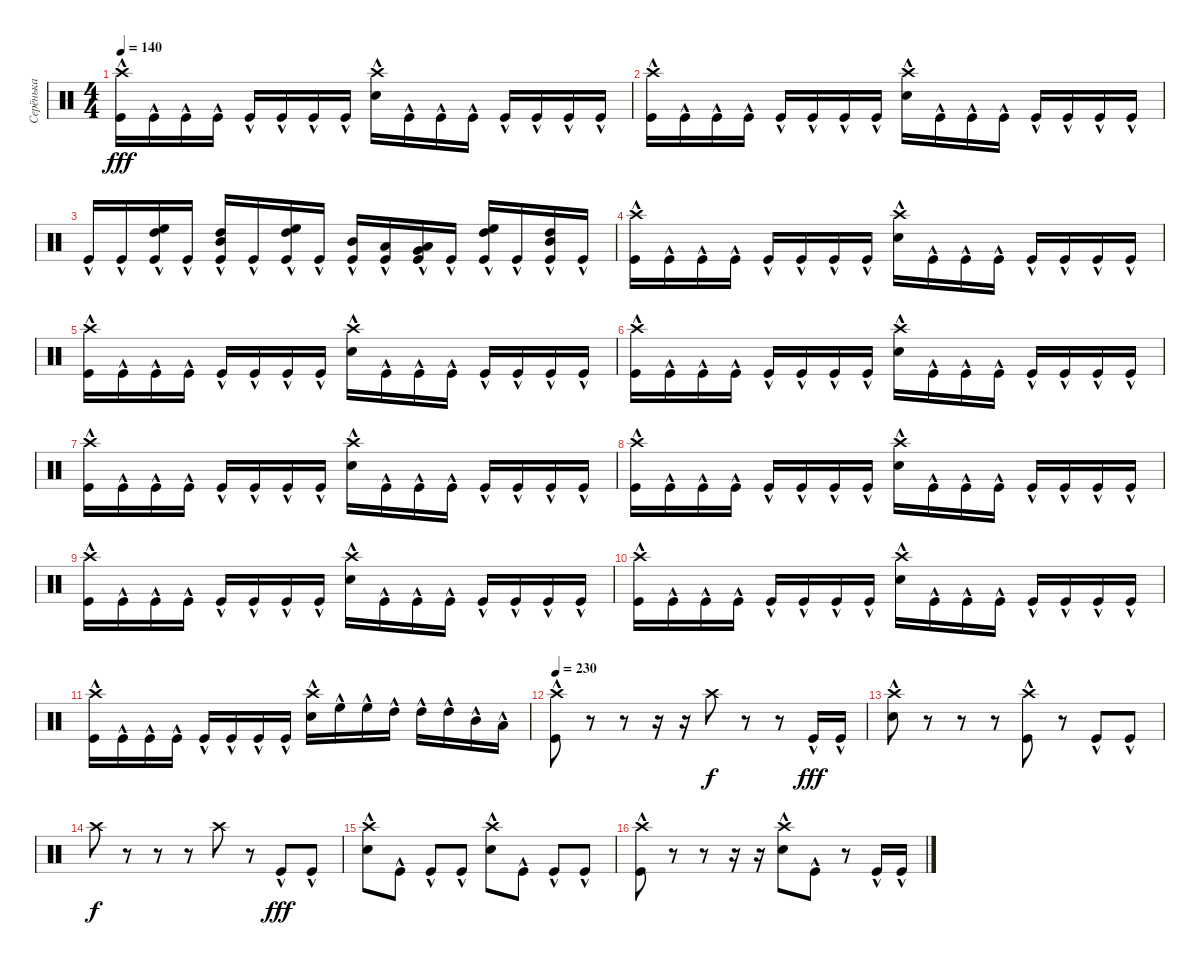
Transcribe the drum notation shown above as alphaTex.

\track ("Серёнька" "Серёнька") {instrument percussion}
\staff {score}
\articulation defaults
\ts (4 4)
\tempo 140
\clef neutral
\ks c
("Crash high (hit)" "Kick (hit)"{hac}).16{dy fff} "Kick (hit)"{hac}.16 "Kick (hit)"{hac}.16 "Kick (hit)"{hac}.16 "Kick (hit)"{hac}.16 "Kick (hit)"{hac}.16 "Kick (hit)"{hac}.16 "Kick (hit)"{hac}.16 ("Crash high (hit)" "Snare (hit) 2"{hac}).16 "Kick (hit)"{hac}.16 "Kick (hit)"{hac}.16 "Kick (hit)"{hac}.16 "Kick (hit)"{hac}.16 "Kick (hit)"{hac}.16 "Kick (hit)"{hac}.16 "Kick (hit)"{hac}.16 |
("Crash high (hit)" "Kick (hit)"{hac}).16 "Kick (hit)"{hac}.16 "Kick (hit)"{hac}.16 "Kick (hit)"{hac}.16 "Kick (hit)"{hac}.16 "Kick (hit)"{hac}.16 "Kick (hit)"{hac}.16 "Kick (hit)"{hac}.16 ("Crash high (hit)" "Snare (hit) 2"{hac}).16 "Kick (hit)"{hac}.16 "Kick (hit)"{hac}.16 "Kick (hit)"{hac}.16 "Kick (hit)"{hac}.16 "Kick (hit)"{hac}.16 "Kick (hit)"{hac}.16 "Kick (hit)"{hac}.16 |
"Kick (hit)"{hac}.16 "Kick (hit)"{hac}.16 ("High Tom (hit)"{hac} "High Floor Tom (hit)"{hac} "Kick (hit)"{hac}).16 "Kick (hit)"{hac}.16 ("High Tom (hit)"{hac} "Mid Tom (hit)"{hac} "Kick (hit)"{hac}).16 "Kick (hit)"{hac}.16 ("High Tom (hit)"{hac} "High Floor Tom (hit)"{hac} "Kick (hit)"{hac}).16 "Kick (hit)"{hac}.16 ("Mid Tom (hit)"{hac} "Kick (hit)"{hac}).16 ("Low Tom (hit)"{hac} "Kick (hit)"{hac}).16 ("Very Low Tom (hit)"{hac} "Low Tom (hit)"{hac} "Kick (hit)"{hac}).16 "Kick (hit)"{hac}.16 ("High Tom (hit)"{hac} "High Floor Tom (hit)"{hac} "Kick (hit)"{hac}).16 "Kick (hit)"{hac}.16 ("Mid Tom (hit)"{hac} "High Tom (hit)"{hac} "Kick (hit)"{hac}).16 "Kick (hit)"{hac}.16 |
("Crash high (hit)" "Kick (hit)"{hac}).16 "Kick (hit)"{hac}.16 "Kick (hit)"{hac}.16 "Kick (hit)"{hac}.16 "Kick (hit)"{hac}.16 "Kick (hit)"{hac}.16 "Kick (hit)"{hac}.16 "Kick (hit)"{hac}.16 ("Crash high (hit)" "Snare (hit) 2"{hac}).16 "Kick (hit)"{hac}.16 "Kick (hit)"{hac}.16 "Kick (hit)"{hac}.16 "Kick (hit)"{hac}.16 "Kick (hit)"{hac}.16 "Kick (hit)"{hac}.16 "Kick (hit)"{hac}.16 |
("Crash high (hit)" "Kick (hit)"{hac}).16 "Kick (hit)"{hac}.16 "Kick (hit)"{hac}.16 "Kick (hit)"{hac}.16 "Kick (hit)"{hac}.16 "Kick (hit)"{hac}.16 "Kick (hit)"{hac}.16 "Kick (hit)"{hac}.16 ("Crash high (hit)" "Snare (hit) 2"{hac}).16 "Kick (hit)"{hac}.16 "Kick (hit)"{hac}.16 "Kick (hit)"{hac}.16 "Kick (hit)"{hac}.16 "Kick (hit)"{hac}.16 "Kick (hit)"{hac}.16 "Kick (hit)"{hac}.16 |
("Crash high (hit)" "Kick (hit)"{hac}).16 "Kick (hit)"{hac}.16 "Kick (hit)"{hac}.16 "Kick (hit)"{hac}.16 "Kick (hit)"{hac}.16 "Kick (hit)"{hac}.16 "Kick (hit)"{hac}.16 "Kick (hit)"{hac}.16 ("Crash high (hit)" "Snare (hit) 2"{hac}).16 "Kick (hit)"{hac}.16 "Kick (hit)"{hac}.16 "Kick (hit)"{hac}.16 "Kick (hit)"{hac}.16 "Kick (hit)"{hac}.16 "Kick (hit)"{hac}.16 "Kick (hit)"{hac}.16 |
("Crash high (hit)" "Kick (hit)"{hac}).16 "Kick (hit)"{hac}.16 "Kick (hit)"{hac}.16 "Kick (hit)"{hac}.16 "Kick (hit)"{hac}.16 "Kick (hit)"{hac}.16 "Kick (hit)"{hac}.16 "Kick (hit)"{hac}.16 ("Crash high (hit)" "Snare (hit) 2"{hac}).16 "Kick (hit)"{hac}.16 "Kick (hit)"{hac}.16 "Kick (hit)"{hac}.16 "Kick (hit)"{hac}.16 "Kick (hit)"{hac}.16 "Kick (hit)"{hac}.16 "Kick (hit)"{hac}.16 |
("Crash high (hit)" "Kick (hit)"{hac}).16 "Kick (hit)"{hac}.16 "Kick (hit)"{hac}.16 "Kick (hit)"{hac}.16 "Kick (hit)"{hac}.16 "Kick (hit)"{hac}.16 "Kick (hit)"{hac}.16 "Kick (hit)"{hac}.16 ("Crash high (hit)" "Snare (hit) 2"{hac}).16 "Kick (hit)"{hac}.16 "Kick (hit)"{hac}.16 "Kick (hit)"{hac}.16 "Kick (hit)"{hac}.16 "Kick (hit)"{hac}.16 "Kick (hit)"{hac}.16 "Kick (hit)"{hac}.16 |
("Crash high (hit)" "Kick (hit)"{hac}).16 "Kick (hit)"{hac}.16 "Kick (hit)"{hac}.16 "Kick (hit)"{hac}.16 "Kick (hit)"{hac}.16 "Kick (hit)"{hac}.16 "Kick (hit)"{hac}.16 "Kick (hit)"{hac}.16 ("Crash high (hit)" "Snare (hit) 2"{hac}).16 "Kick (hit)"{hac}.16 "Kick (hit)"{hac}.16 "Kick (hit)"{hac}.16 "Kick (hit)"{hac}.16 "Kick (hit)"{hac}.16 "Kick (hit)"{hac}.16 "Kick (hit)"{hac}.16 |
("Crash high (hit)" "Kick (hit)"{hac}).16 "Kick (hit)"{hac}.16 "Kick (hit)"{hac}.16 "Kick (hit)"{hac}.16 "Kick (hit)"{hac}.16 "Kick (hit)"{hac}.16 "Kick (hit)"{hac}.16 "Kick (hit)"{hac}.16 ("Crash high (hit)" "Snare (hit) 2"{hac}).16 "Kick (hit)"{hac}.16 "Kick (hit)"{hac}.16 "Kick (hit)"{hac}.16 "Kick (hit)"{hac}.16 "Kick (hit)"{hac}.16 "Kick (hit)"{hac}.16 "Kick (hit)"{hac}.16 |
("Crash high (hit)" "Kick (hit)"{hac}).16 "Kick (hit)"{hac}.16 "Kick (hit)"{hac}.16 "Kick (hit)"{hac}.16 "Kick (hit)"{hac}.16 "Kick (hit)"{hac}.16 "Kick (hit)"{hac}.16 "Kick (hit)"{hac}.16 ("Crash high (hit)" "Snare (hit) 2"{hac}).16 "High Floor Tom (hit)"{hac}.16 "High Floor Tom (hit)"{hac}.16 "High Tom (hit)"{hac}.16 "High Tom (hit)"{hac}.16 "High Tom (hit)"{hac}.16 "Mid Tom (hit)"{hac}.16 "Low Tom (hit)"{hac}.16 |
\tempo 230
("Crash high (hit)"{hac} "Kick (hit)"{hac}).8 r.8 r.8 r.16 r.16 "Crash high (hit)".8{dy f} r.8 r.8 "Kick (hit)"{hac}.16{dy fff} "Kick (hit)"{hac}.16 |
("Crash high (hit)" "Snare (hit) 2"{hac}).8 r.8 r.8 r.8 ("Crash high (hit)" "Kick (hit)"{hac}).8 r.8 "Kick (hit)"{hac}.8 "Kick (hit)"{hac}.8 |
"Crash high (hit)".8{dy f} r.8 r.8 r.8 "Crash high (hit)".8 r.8 "Kick (hit)"{hac}.8{dy fff} "Kick (hit)"{hac}.8 |
("Crash high (hit)" "Snare (hit) 2"{hac}).8 "Kick (hit)"{hac}.8 "Kick (hit)"{hac}.8 "Kick (hit)"{hac}.8 ("Crash high (hit)" "Snare (hit) 2"{hac}).8 "Kick (hit)"{hac}.8 "Kick (hit)"{hac}.8 "Kick (hit)"{hac}.8 |
("Crash high (hit)"{hac} "Kick (hit)"{hac}).8 r.8 r.8 r.16 r.16 ("Crash high (hit)" "Snare (hit) 2"{hac}).8 "Kick (hit)"{hac}.8 r.8 "Kick (hit)"{hac}.16 "Kick (hit)"{hac}.16
